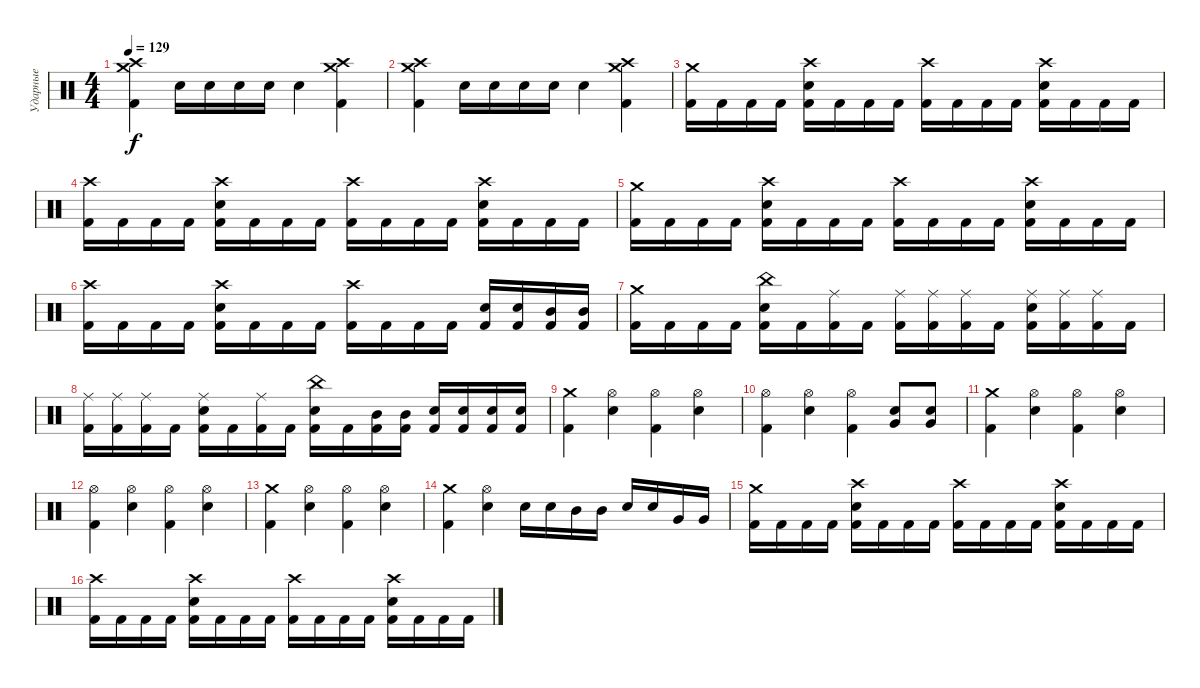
\track ("Ударные" "Ударные") {instrument percussion}
\staff
\articulation defaults
\ts (4 4)
\tempo 129
\clef neutral
\ks c
("Crash medium (hit)" "Crash high (hit)" "Kick (hit) 2").4{dy f} "Snare (hit) 2".16 "Snare (hit) 2".16 "Snare (hit) 2".16 "Snare (hit) 2".16 "Snare (hit) 2".4 ("Crash medium (hit)" "Crash high (hit)" "Kick (hit) 2").4 |
("Crash medium (hit)" "Crash high (hit)" "Kick (hit) 2").4 "Snare (hit) 2".16 "Snare (hit) 2".16 "Snare (hit) 2".16 "Snare (hit) 2".16 "Snare (hit) 2".4 ("Crash medium (hit)" "Crash high (hit)" "Kick (hit) 2").4 |
("Crash medium (hit)" "Kick (hit) 2").16 "Kick (hit) 2".16 "Kick (hit) 2".16 "Kick (hit) 2".16 ("Crash high (hit)" "Snare (hit) 2" "Kick (hit) 2").16 "Kick (hit) 2".16 "Kick (hit) 2".16 "Kick (hit) 2".16 ("Crash high (hit)" "Kick (hit) 2").16 "Kick (hit) 2".16 "Kick (hit) 2".16 "Kick (hit) 2".16 ("Crash high (hit)" "Snare (hit) 2" "Kick (hit) 2").16 "Kick (hit) 2".16 "Kick (hit) 2".16 "Kick (hit) 2".16 |
("Crash high (hit)" "Kick (hit) 2").16 "Kick (hit) 2".16 "Kick (hit) 2".16 "Kick (hit) 2".16 ("Crash high (hit)" "Snare (hit) 2" "Kick (hit) 2").16 "Kick (hit) 2".16 "Kick (hit) 2".16 "Kick (hit) 2".16 ("Crash high (hit)" "Kick (hit) 2").16 "Kick (hit) 2".16 "Kick (hit) 2".16 "Kick (hit) 2".16 ("Crash high (hit)" "Snare (hit) 2" "Kick (hit) 2").16 "Kick (hit) 2".16 "Kick (hit) 2".16 "Kick (hit) 2".16 |
("Crash medium (hit)" "Kick (hit) 2").16 "Kick (hit) 2".16 "Kick (hit) 2".16 "Kick (hit) 2".16 ("Crash high (hit)" "Snare (hit) 2" "Kick (hit) 2").16 "Kick (hit) 2".16 "Kick (hit) 2".16 "Kick (hit) 2".16 ("Crash high (hit)" "Kick (hit) 2").16 "Kick (hit) 2".16 "Kick (hit) 2".16 "Kick (hit) 2".16 ("Crash high (hit)" "Snare (hit) 2" "Kick (hit) 2").16 "Kick (hit) 2".16 "Kick (hit) 2".16 "Kick (hit) 2".16 |
("Crash high (hit)" "Kick (hit) 2").16 "Kick (hit) 2".16 "Kick (hit) 2".16 "Kick (hit) 2".16 ("Crash high (hit)" "Snare (hit) 2" "Kick (hit) 2").16 "Kick (hit) 2".16 "Kick (hit) 2".16 "Kick (hit) 2".16 ("Crash high (hit)" "Kick (hit) 2").16 "Kick (hit) 2".16 "Kick (hit) 2".16 "Kick (hit) 2".16 ("Snare (hit) 2" "Kick (hit) 2").16 ("Snare (hit) 2" "Kick (hit) 2").16 ("Mid Tom (hit)" "Kick (hit) 2").16 ("Mid Tom (hit)" "Kick (hit) 2").16 |
("Crash medium (hit)" "Kick (hit) 2").16 "Kick (hit) 2".16 "Kick (hit) 2".16 "Kick (hit) 2".16 ("China (hit)" "Snare (hit) 2" "Kick (hit) 2").16 "Kick (hit) 2".16 ("Ride (middle)" "Kick (hit) 2").16 "Kick (hit) 2".16 ("Ride (middle)" "Kick (hit) 2").16 ("Ride (middle)" "Kick (hit) 2").16 ("Ride (middle)" "Kick (hit) 2").16 "Kick (hit) 2".16 ("Ride (middle)" "Snare (hit) 2" "Kick (hit) 2").16 ("Ride (middle)" "Kick (hit) 2").16 ("Ride (middle)" "Kick (hit) 2").16 "Kick (hit) 2".16 |
("Ride (middle)" "Kick (hit) 2").16 ("Ride (middle)" "Kick (hit) 2").16 ("Ride (middle)" "Kick (hit) 2").16 "Kick (hit) 2".16 ("Ride (middle)" "Snare (hit) 2" "Kick (hit) 2").16 "Kick (hit) 2".16 ("Ride (middle)" "Kick (hit) 2").16 "Kick (hit) 2".16 ("China (hit)" "Snare (hit) 2" "Kick (hit) 2").16 "Kick (hit) 2".16 ("Mid Tom (hit)" "Kick (hit) 2").16 ("Mid Tom (hit)" "Kick (hit) 2").16 ("Snare (hit) 2" "Kick (hit) 2").16 ("Snare (hit) 2" "Kick (hit) 2").16 ("Snare (hit) 2" "Kick (hit) 2").16 ("Snare (hit) 2" "Kick (hit) 2").16 |
("Crash medium (hit)" "Kick (hit) 2").4 ("Hi-Hat (open)" "Snare (hit) 2").4 ("Hi-Hat (open)" "Kick (hit) 2").4 ("Hi-Hat (open)" "Snare (hit) 2").4 |
("Hi-Hat (open)" "Kick (hit) 2").4 ("Hi-Hat (open)" "Snare (hit) 2").4 ("Hi-Hat (open)" "Kick (hit) 2").4 ("Snare (hit) 2" "Very Low Tom (hit)").8 ("Snare (hit) 2" "Very Low Tom (hit)").8 |
("Crash medium (hit)" "Kick (hit) 2").4 ("Hi-Hat (open)" "Snare (hit) 2").4 ("Hi-Hat (open)" "Kick (hit) 2").4 ("Hi-Hat (open)" "Snare (hit) 2").4 |
("Hi-Hat (open)" "Kick (hit) 2").4 ("Hi-Hat (open)" "Snare (hit) 2").4 ("Hi-Hat (open)" "Kick (hit) 2").4 ("Hi-Hat (open)" "Snare (hit) 2").4 |
("Crash medium (hit)" "Kick (hit) 2").4 ("Hi-Hat (open)" "Snare (hit) 2").4 ("Hi-Hat (open)" "Kick (hit) 2").4 ("Hi-Hat (open)" "Snare (hit) 2").4 |
("Crash medium (hit)" "Kick (hit) 2").4 ("Hi-Hat (open)" "Snare (hit) 2").4 "Snare (hit) 2".16 "Snare (hit) 2".16 "Mid Tom (hit)".16 "Mid Tom (hit)".16 "Snare (hit) 2".16 "Snare (hit) 2".16 "Very Low Tom (hit)".16 "Very Low Tom (hit)".16 |
("Crash medium (hit)" "Kick (hit) 2").16 "Kick (hit) 2".16 "Kick (hit) 2".16 "Kick (hit) 2".16 ("Crash high (hit)" "Snare (hit) 2" "Kick (hit) 2").16 "Kick (hit) 2".16 "Kick (hit) 2".16 "Kick (hit) 2".16 ("Crash high (hit)" "Kick (hit) 2").16 "Kick (hit) 2".16 "Kick (hit) 2".16 "Kick (hit) 2".16 ("Crash high (hit)" "Snare (hit) 2" "Kick (hit) 2").16 "Kick (hit) 2".16 "Kick (hit) 2".16 "Kick (hit) 2".16 |
("Crash high (hit)" "Kick (hit) 2").16 "Kick (hit) 2".16 "Kick (hit) 2".16 "Kick (hit) 2".16 ("Crash high (hit)" "Snare (hit) 2" "Kick (hit) 2").16 "Kick (hit) 2".16 "Kick (hit) 2".16 "Kick (hit) 2".16 ("Crash high (hit)" "Kick (hit) 2").16 "Kick (hit) 2".16 "Kick (hit) 2".16 "Kick (hit) 2".16 ("Crash high (hit)" "Snare (hit) 2" "Kick (hit) 2").16 "Kick (hit) 2".16 "Kick (hit) 2".16 "Kick (hit) 2".16
